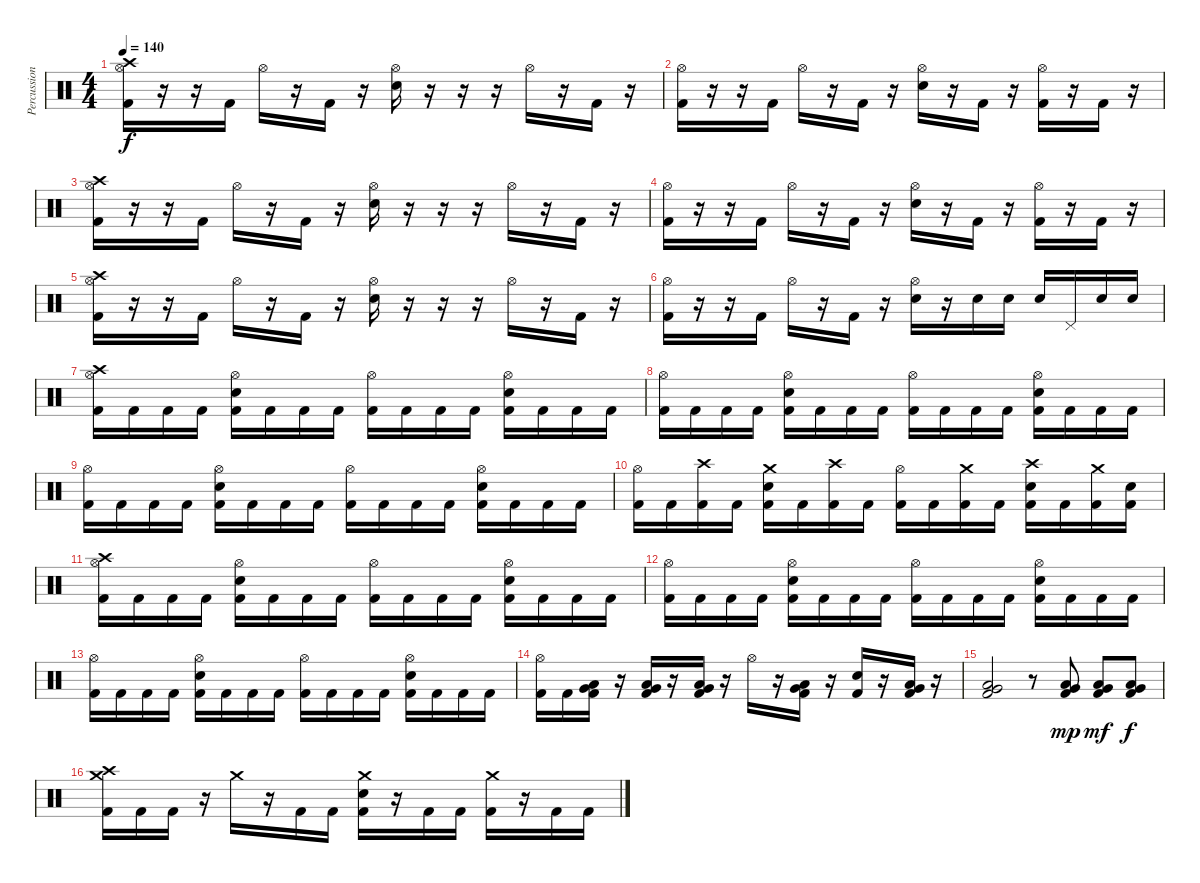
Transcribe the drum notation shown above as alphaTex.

\track ("Percussion" "Percussion") {instrument percussion}
\staff {score}
\articulation defaults
\ts (4 4)
\tempo 140
\clef neutral
\ks c
("Crash high (hit)" "Hi-Hat (open)" "Kick (hit) 2").16{dy f} r.16 r.16 "Kick (hit) 2".16 "Hi-Hat (open)".16 r.16 "Kick (hit) 2".16 r.16 ("Hi-Hat (open)" "Electric Snare (hit)").16 r.16 r.16 r.16 "Hi-Hat (open)".16 r.16 "Kick (hit) 2".16 r.16 |
("Hi-Hat (open)" "Kick (hit) 2").16 r.16 r.16 "Kick (hit) 2".16 "Hi-Hat (open)".16 r.16 "Kick (hit) 2".16 r.16 ("Hi-Hat (open)" "Electric Snare (hit)").16 r.16 "Kick (hit) 2".16 r.16 ("Hi-Hat (open)" "Kick (hit) 2").16 r.16 "Kick (hit) 2".16 r.16 |
("Crash high (hit)" "Hi-Hat (open)" "Kick (hit) 2").16 r.16 r.16 "Kick (hit) 2".16 "Hi-Hat (open)".16 r.16 "Kick (hit) 2".16 r.16 ("Hi-Hat (open)" "Electric Snare (hit)").16 r.16 r.16 r.16 "Hi-Hat (open)".16 r.16 "Kick (hit) 2".16 r.16 |
("Hi-Hat (open)" "Kick (hit) 2").16 r.16 r.16 "Kick (hit) 2".16 "Hi-Hat (open)".16 r.16 "Kick (hit) 2".16 r.16 ("Hi-Hat (open)" "Electric Snare (hit)").16 r.16 "Kick (hit) 2".16 r.16 ("Hi-Hat (open)" "Kick (hit) 2").16 r.16 "Kick (hit) 2".16 r.16 |
("Crash high (hit)" "Hi-Hat (open)" "Kick (hit) 2").16 r.16 r.16 "Kick (hit) 2".16 "Hi-Hat (open)".16 r.16 "Kick (hit) 2".16 r.16 ("Hi-Hat (open)" "Electric Snare (hit)").16 r.16 r.16 r.16 "Hi-Hat (open)".16 r.16 "Kick (hit) 2".16 r.16 |
("Hi-Hat (open)" "Kick (hit) 2").16 r.16 r.16 "Kick (hit) 2".16 "Hi-Hat (open)".16 r.16 "Kick (hit) 2".16 r.16 ("Hi-Hat (open)" "Electric Snare (hit)").16 r.16 "Electric Snare (hit)".16 "Electric Snare (hit)".16 "Electric Snare (hit)".16 "Pedal Hi-Hat (hit)".16 "Electric Snare (hit)".16 "Electric Snare (hit)".16 |
("Crash high (hit)" "Hi-Hat (open)" "Kick (hit) 2").16 "Kick (hit) 2".16 "Kick (hit) 2".16 "Kick (hit) 2".16 ("Hi-Hat (open)" "Electric Snare (hit)" "Kick (hit) 2").16 "Kick (hit) 2".16 "Kick (hit) 2".16 "Kick (hit) 2".16 ("Hi-Hat (open)" "Kick (hit) 2").16 "Kick (hit) 2".16 "Kick (hit) 2".16 "Kick (hit) 2".16 ("Hi-Hat (open)" "Electric Snare (hit)" "Kick (hit) 2").16 "Kick (hit) 2".16 "Kick (hit) 2".16 "Kick (hit) 2".16 |
("Hi-Hat (open)" "Kick (hit) 2").16 "Kick (hit) 2".16 "Kick (hit) 2".16 "Kick (hit) 2".16 ("Hi-Hat (open)" "Electric Snare (hit)" "Kick (hit) 2").16 "Kick (hit) 2".16 "Kick (hit) 2".16 "Kick (hit) 2".16 ("Hi-Hat (open)" "Kick (hit) 2").16 "Kick (hit) 2".16 "Kick (hit) 2".16 "Kick (hit) 2".16 ("Hi-Hat (open)" "Electric Snare (hit)" "Kick (hit) 2").16 "Kick (hit) 2".16 "Kick (hit) 2".16 "Kick (hit) 2".16 |
("Hi-Hat (open)" "Kick (hit) 2").16 "Kick (hit) 2".16 "Kick (hit) 2".16 "Kick (hit) 2".16 ("Hi-Hat (open)" "Electric Snare (hit)" "Kick (hit) 2").16 "Kick (hit) 2".16 "Kick (hit) 2".16 "Kick (hit) 2".16 ("Hi-Hat (open)" "Kick (hit) 2").16 "Kick (hit) 2".16 "Kick (hit) 2".16 "Kick (hit) 2".16 ("Hi-Hat (open)" "Electric Snare (hit)" "Kick (hit) 2").16 "Kick (hit) 2".16 "Kick (hit) 2".16 "Kick (hit) 2".16 |
("Hi-Hat (open)" "Kick (hit) 2").16 "Kick (hit) 2".16 ("Crash high (hit)" "Kick (hit) 2").16 "Kick (hit) 2".16 ("Crash medium (hit)" "Electric Snare (hit)" "Kick (hit) 2").16 "Kick (hit) 2".16 ("Crash high (hit)" "Kick (hit) 2").16 "Kick (hit) 2".16 ("Hi-Hat (open)" "Kick (hit) 2").16 "Kick (hit) 2".16 ("Crash medium (hit)" "Kick (hit) 2").16 "Kick (hit) 2".16 ("Crash high (hit)" "Electric Snare (hit)" "Kick (hit) 2").16 "Kick (hit) 2".16 ("Crash medium (hit)" "Kick (hit) 2").16 ("Electric Snare (hit)" "Kick (hit) 2").16 |
("Crash high (hit)" "Hi-Hat (open)" "Kick (hit) 2").16 "Kick (hit) 2".16 "Kick (hit) 2".16 "Kick (hit) 2".16 ("Hi-Hat (open)" "Electric Snare (hit)" "Kick (hit) 2").16 "Kick (hit) 2".16 "Kick (hit) 2".16 "Kick (hit) 2".16 ("Hi-Hat (open)" "Kick (hit) 2").16 "Kick (hit) 2".16 "Kick (hit) 2".16 "Kick (hit) 2".16 ("Hi-Hat (open)" "Electric Snare (hit)" "Kick (hit) 2").16 "Kick (hit) 2".16 "Kick (hit) 2".16 "Kick (hit) 2".16 |
("Hi-Hat (open)" "Kick (hit) 2").16 "Kick (hit) 2".16 "Kick (hit) 2".16 "Kick (hit) 2".16 ("Hi-Hat (open)" "Electric Snare (hit)" "Kick (hit) 2").16 "Kick (hit) 2".16 "Kick (hit) 2".16 "Kick (hit) 2".16 ("Hi-Hat (open)" "Kick (hit) 2").16 "Kick (hit) 2".16 "Kick (hit) 2".16 "Kick (hit) 2".16 ("Hi-Hat (open)" "Electric Snare (hit)" "Kick (hit) 2").16 "Kick (hit) 2".16 "Kick (hit) 2".16 "Kick (hit) 2".16 |
("Hi-Hat (open)" "Kick (hit) 2").16 "Kick (hit) 2".16 "Kick (hit) 2".16 "Kick (hit) 2".16 ("Hi-Hat (open)" "Electric Snare (hit)" "Kick (hit) 2").16 "Kick (hit) 2".16 "Kick (hit) 2".16 "Kick (hit) 2".16 ("Hi-Hat (open)" "Kick (hit) 2").16 "Kick (hit) 2".16 "Kick (hit) 2".16 "Kick (hit) 2".16 ("Hi-Hat (open)" "Electric Snare (hit)" "Kick (hit) 2").16 "Kick (hit) 2".16 "Kick (hit) 2".16 "Kick (hit) 2".16 |
("Hi-Hat (open)" "Kick (hit) 2").16 "Kick (hit) 2".16 ("Very Low Tom (hit)" "Low Tom (hit)" "Kick (hit) 2").16 r.16 ("Very Low Tom (hit)" "Low Tom (hit)" "Kick (hit) 2").16 r.16 ("Very Low Tom (hit)" "Low Tom (hit)" "Kick (hit) 2").16 r.16 "Hi-Hat (open)".16 r.16 ("Very Low Tom (hit)" "Low Floor Tom (hit)" "Kick (hit) 2").16 r.16 ("Electric Snare (hit)" "Kick (hit) 2").16 r.16 ("Very Low Tom (hit)" "Low Floor Tom (hit)" "Kick (hit) 2").16 r.16 |
("Very Low Tom (hit)" "Low Floor Tom (hit)" "Kick (hit) 2").2 r.8 ("Very Low Tom (hit)" "Low Floor Tom (hit)" "Kick (hit) 2").8{dy mp} ("Very Low Tom (hit)" "Low Floor Tom (hit)" "Kick (hit) 2").8{dy mf} ("Very Low Tom (hit)" "Low Floor Tom (hit)" "Kick (hit) 2").8{dy f} |
("Crash high (hit)" "Crash medium (hit)" "Kick (hit) 2").16 "Kick (hit) 2".16 "Kick (hit) 2".16 r.16 "Crash medium (hit)".16 r.16 "Kick (hit) 2".16 "Kick (hit) 2".16 ("Crash medium (hit)" "Electric Snare (hit)" "Kick (hit) 2").16 r.16 "Kick (hit) 2".16 "Kick (hit) 2".16 ("Crash medium (hit)" "Kick (hit) 2").16 r.16 "Kick (hit) 2".16 "Kick (hit) 2".16
